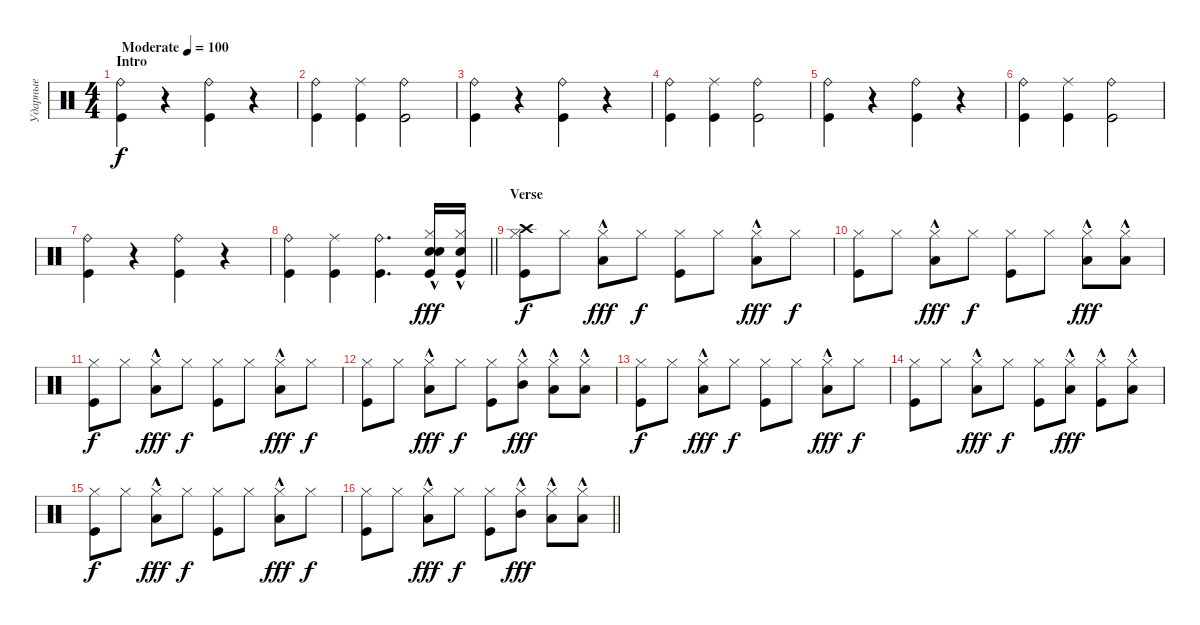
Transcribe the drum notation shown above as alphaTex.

\track ("Ударные" "Ударные") {instrument percussion}
\staff {score}
\articulation defaults
\ts (4 4)
\section ("" "Intro")
\tempo (100 "Moderate")
\clef neutral
\ks c
("Ride (bell)" "Kick (hit)").4{dy f} r.4 ("Ride (bell)" "Kick (hit)").4 r.4 |
("Ride (bell)" "Kick (hit)").4 ("Ride (middle)" "Kick (hit)").4 ("Ride (bell)" "Kick (hit)").2 |
("Ride (bell)" "Kick (hit)").4 r.4 ("Ride (bell)" "Kick (hit)").4 r.4 |
("Ride (bell)" "Kick (hit)").4 ("Ride (middle)" "Kick (hit)").4 ("Ride (bell)" "Kick (hit)").2 |
("Ride (bell)" "Kick (hit)").4 r.4 ("Ride (bell)" "Kick (hit)").4 r.4 |
("Ride (bell)" "Kick (hit)").4 ("Ride (middle)" "Kick (hit)").4 ("Ride (bell)" "Kick (hit)").2 |
("Ride (bell)" "Kick (hit)").4 r.4 ("Ride (bell)" "Kick (hit)").4 r.4 |
\barLineRight lightlight
("Ride (bell)" "Kick (hit)").4 ("Ride (middle)" "Kick (hit)").4 ("Ride (bell)" "Kick (hit)").4{d} ("Hi-Hat (closed)" "Snare (hit) 2"{hac} "Snare (hit)" "Kick (hit)").16{dy fff} ("Hi-Hat (closed)" "Snare (hit) 2"{hac} "Kick (hit)").16 |
\section ("" "Verse")
("Crash high (hit)" "Hi-Hat (closed)" "Kick (hit)").8{dy f} "Hi-Hat (closed)".8 ("Hi-Hat (closed)" "Low Tom (hit)"{hac}).8{dy fff} "Hi-Hat (closed)".8{dy f} ("Hi-Hat (closed)" "Kick (hit)").8 "Hi-Hat (closed)".8 ("Hi-Hat (closed)" "Low Tom (hit)"{hac}).8{dy fff} "Hi-Hat (closed)".8{dy f} |
("Hi-Hat (closed)" "Kick (hit)").8 "Hi-Hat (closed)".8 ("Hi-Hat (closed)" "Low Tom (hit)"{hac}).8{dy fff} "Hi-Hat (closed)".8{dy f} ("Hi-Hat (closed)" "Kick (hit)").8 "Hi-Hat (closed)".8 ("Hi-Hat (closed)" "Low Tom (hit)"{hac}).8{dy fff} ("Hi-Hat (closed)" "Low Tom (hit)"{hac}).8 |
("Hi-Hat (closed)" "Kick (hit)").8{dy f} "Hi-Hat (closed)".8 ("Hi-Hat (closed)" "Low Tom (hit)"{hac}).8{dy fff} "Hi-Hat (closed)".8{dy f} ("Hi-Hat (closed)" "Kick (hit)").8 "Hi-Hat (closed)".8 ("Hi-Hat (closed)" "Low Tom (hit)"{hac}).8{dy fff} "Hi-Hat (closed)".8{dy f} |
("Hi-Hat (closed)" "Kick (hit)").8 "Hi-Hat (closed)".8 ("Hi-Hat (closed)" "Low Tom (hit)"{hac}).8{dy fff} "Hi-Hat (closed)".8{dy f} ("Hi-Hat (closed)" "Kick (hit)").8 ("Hi-Hat (closed)" "Mid Tom (hit)"{hac}).8{dy fff} ("Hi-Hat (closed)" "Low Tom (hit)"{hac}).8 ("Hi-Hat (closed)" "Low Tom (hit)"{hac}).8 |
("Hi-Hat (closed)" "Kick (hit)").8{dy f} "Hi-Hat (closed)".8 ("Hi-Hat (closed)" "Low Tom (hit)"{hac}).8{dy fff} "Hi-Hat (closed)".8{dy f} ("Hi-Hat (closed)" "Kick (hit)").8 "Hi-Hat (closed)".8 ("Hi-Hat (closed)" "Low Tom (hit)"{hac}).8{dy fff} "Hi-Hat (closed)".8{dy f} |
("Hi-Hat (closed)" "Kick (hit)").8 "Hi-Hat (closed)".8 ("Hi-Hat (closed)" "Low Tom (hit)"{hac}).8{dy fff} "Hi-Hat (closed)".8{dy f} ("Hi-Hat (closed)" "Kick (hit)").8 ("Hi-Hat (closed)" "Low Tom (hit)"{hac}).8{dy fff} ("Hi-Hat (closed)" "Kick (hit)"{hac}).8 ("Hi-Hat (closed)" "Low Tom (hit)"{hac}).8 |
("Hi-Hat (closed)" "Kick (hit)").8{dy f} "Hi-Hat (closed)".8 ("Hi-Hat (closed)" "Low Tom (hit)"{hac}).8{dy fff} "Hi-Hat (closed)".8{dy f} ("Hi-Hat (closed)" "Kick (hit)").8 "Hi-Hat (closed)".8 ("Hi-Hat (closed)" "Low Tom (hit)"{hac}).8{dy fff} "Hi-Hat (closed)".8{dy f} |
\barLineRight lightlight
("Hi-Hat (closed)" "Kick (hit)").8 "Hi-Hat (closed)".8 ("Hi-Hat (closed)" "Low Tom (hit)"{hac}).8{dy fff} "Hi-Hat (closed)".8{dy f} ("Hi-Hat (closed)" "Kick (hit)").8 ("Hi-Hat (closed)" "Mid Tom (hit)"{hac}).8{dy fff} ("Hi-Hat (closed)" "Low Tom (hit)"{hac}).8 ("Hi-Hat (closed)" "Low Tom (hit)"{hac}).8
